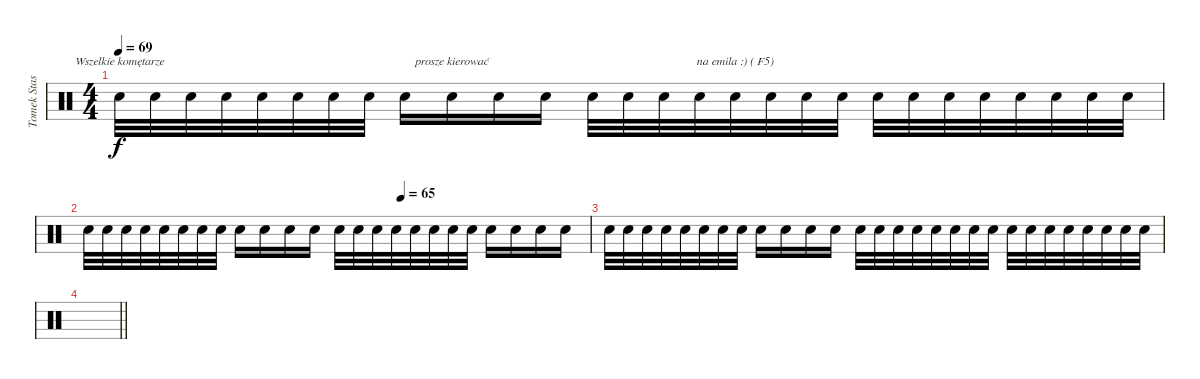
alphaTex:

\track ("Tomek Stasiak" "Tomek Stas") {instrument percussion}
\staff {score}
\articulation defaults
\chord ("Wszelkie komętarze ")
\chord ("prosze kierować")
\chord ("na emila :) ( F5) ")
\ts (4 4)
\tempo 69
\clef neutral
\ks c "Snare (hit) 2".32{ch "Wszelkie komętarze " dy f volume 0} "Snare (hit) 2".32 "Snare (hit) 2".32 "Snare (hit) 2".32 "Snare (hit) 2".32 "Snare (hit) 2".32 "Snare (hit) 2".32 "Snare (hit) 2".32 "Snare (hit) 2".16 "Snare (hit) 2".16{ch "prosze kierować"} "Snare (hit) 2".16 "Snare (hit) 2".16 "Snare (hit) 2".32 "Snare (hit) 2".32 "Snare (hit) 2".32 "Snare (hit) 2".32 "Snare (hit) 2".32{ch "na emila :) ( F5) "} "Snare (hit) 2".32 "Snare (hit) 2".32 "Snare (hit) 2".32 "Snare (hit) 2".32 "Snare (hit) 2".32 "Snare (hit) 2".32 "Snare (hit) 2".32 "Snare (hit) 2".32 "Snare (hit) 2".32 "Snare (hit) 2".32 "Snare (hit) 2".32
|
\tempo (65 0.625)
"Snare (hit) 2".32 "Snare (hit) 2".32 "Snare (hit) 2".32 "Snare (hit) 2".32 "Snare (hit) 2".32 "Snare (hit) 2".32 "Snare (hit) 2".32 "Snare (hit) 2".32 "Snare (hit) 2".16 "Snare (hit) 2".16 "Snare (hit) 2".16 "Snare (hit) 2".16 "Snare (hit) 2".32 "Snare (hit) 2".32 "Snare (hit) 2".32 "Snare (hit) 2".32 "Snare (hit) 2".32 "Snare (hit) 2".32 "Snare (hit) 2".32 "Snare (hit) 2".32 "Snare (hit) 2".16 "Snare (hit) 2".16 "Snare (hit) 2".16 "Snare (hit) 2".16 |
"Snare (hit) 2".32 "Snare (hit) 2".32 "Snare (hit) 2".32 "Snare (hit) 2".32 "Snare (hit) 2".32 "Snare (hit) 2".32 "Snare (hit) 2".32 "Snare (hit) 2".32 "Snare (hit) 2".16 "Snare (hit) 2".16 "Snare (hit) 2".16 "Snare (hit) 2".16 "Snare (hit) 2".32 "Snare (hit) 2".32 "Snare (hit) 2".32 "Snare (hit) 2".32 "Snare (hit) 2".32 "Snare (hit) 2".32 "Snare (hit) 2".32 "Snare (hit) 2".32 "Snare (hit) 2".32 "Snare (hit) 2".32 "Snare (hit) 2".32 "Snare (hit) 2".32 "Snare (hit) 2".32 "Snare (hit) 2".32 "Snare (hit) 2".32 "Snare (hit) 2".32 |
\barLineRight lightlight
